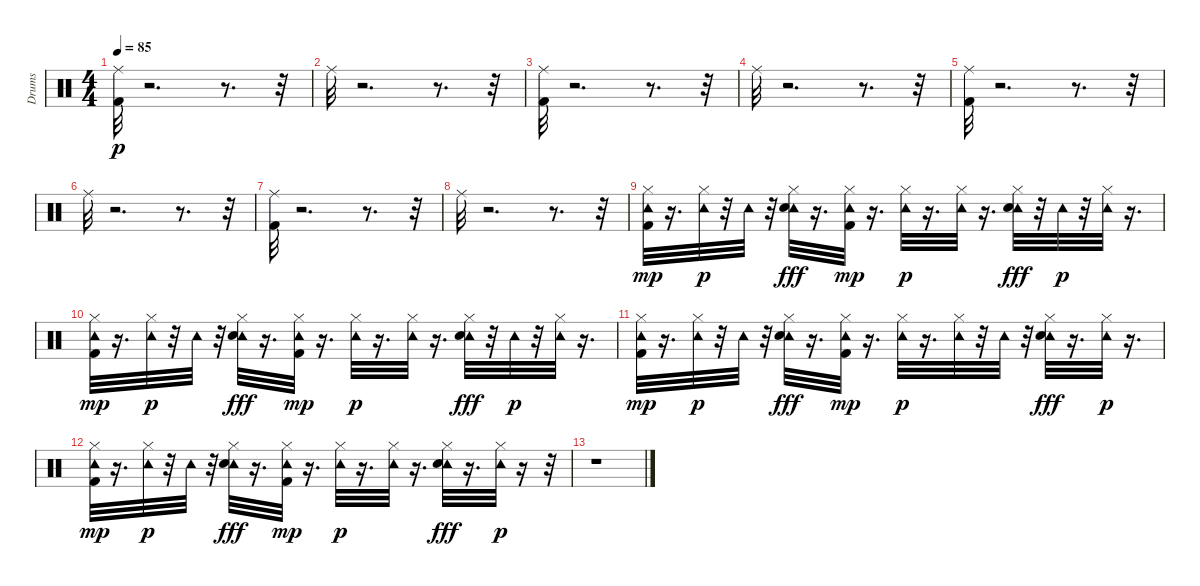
\track ("Drums" "Drums") {instrument percussion}
\staff {score}
\articulation defaults
\ts (4 4)
\tempo 85
\clef neutral
\ks c
("Ride (middle)" "Kick (hit) 2").32{dy p} r.2{d} r.8{d} r.32 |
"Ride (middle)".32 r.2{d} r.8{d} r.32 |
("Ride (middle)" "Kick (hit) 2").32 r.2{d} r.8{d} r.32 |
"Ride (middle)".32 r.2{d} r.8{d} r.32 |
("Ride (middle)" "Kick (hit) 2").32 r.2{d} r.8{d} r.32 |
"Ride (middle)".32 r.2{d} r.8{d} r.32 |
("Ride (middle)" "Kick (hit) 2").32 r.2{d} r.8{d} r.32 |
"Ride (middle)".32 r.2{d} r.8{d} r.32 |
("Tambourine (hit)" "Hi-Hat (closed)" "Kick (hit) 2").32{dy mp} r.16{d} ("Tambourine (hit)" "Hi-Hat (closed)").32{dy p} r.32 "Tambourine (hit)".32 r.32 ("Tambourine (hit)" "Hi-Hat (closed)" "Electric Snare (hit)").32{dy fff} r.16{d} ("Tambourine (hit)" "Hi-Hat (closed)" "Kick (hit) 2").32{dy mp} r.16{d} ("Tambourine (hit)" "Hi-Hat (closed)").32{dy p} r.16{d} ("Tambourine (hit)" "Hi-Hat (closed)").32 r.16{d} ("Tambourine (hit)" "Hi-Hat (closed)" "Electric Snare (hit)").32{dy fff} r.32 "Tambourine (hit)".32{dy p} r.32 ("Tambourine (hit)" "Hi-Hat (closed)").32 r.16{d} |
("Tambourine (hit)" "Hi-Hat (closed)" "Kick (hit) 2").32{dy mp} r.16{d} ("Tambourine (hit)" "Hi-Hat (closed)").32{dy p} r.32 "Tambourine (hit)".32 r.32 ("Tambourine (hit)" "Hi-Hat (closed)" "Electric Snare (hit)").32{dy fff} r.16{d} ("Tambourine (hit)" "Hi-Hat (closed)" "Kick (hit) 2").32{dy mp} r.16{d} ("Tambourine (hit)" "Hi-Hat (closed)").32{dy p} r.16{d} ("Tambourine (hit)" "Hi-Hat (closed)").32 r.16{d} ("Tambourine (hit)" "Hi-Hat (closed)" "Electric Snare (hit)").32{dy fff} r.32 "Tambourine (hit)".32{dy p} r.32 ("Tambourine (hit)" "Hi-Hat (closed)").32 r.16{d} |
("Tambourine (hit)" "Hi-Hat (closed)" "Kick (hit) 2").32{dy mp} r.16{d} ("Tambourine (hit)" "Hi-Hat (closed)").32{dy p} r.32 "Tambourine (hit)".32 r.32 ("Tambourine (hit)" "Hi-Hat (closed)" "Electric Snare (hit)").32{dy fff} r.16{d} ("Tambourine (hit)" "Hi-Hat (closed)" "Kick (hit) 2").32{dy mp} r.16{d} ("Tambourine (hit)" "Hi-Hat (closed)").32{dy p} r.16{d} ("Tambourine (hit)" "Hi-Hat (closed)").32 r.32 "Tambourine (hit)".32 r.32 ("Tambourine (hit)" "Hi-Hat (closed)" "Electric Snare (hit)").32{dy fff} r.16{d} ("Tambourine (hit)" "Hi-Hat (closed)").32{dy p} r.16{d} |
("Tambourine (hit)" "Hi-Hat (closed)" "Kick (hit) 2").32{dy mp} r.16{d} ("Tambourine (hit)" "Hi-Hat (closed)").32{dy p} r.32 "Tambourine (hit)".32 r.32 ("Tambourine (hit)" "Hi-Hat (closed)" "Electric Snare (hit)").32{dy fff} r.16{d} ("Tambourine (hit)" "Hi-Hat (closed)" "Kick (hit) 2").32{dy mp} r.16{d} ("Tambourine (hit)" "Hi-Hat (closed)").32{dy p} r.16{d} ("Tambourine (hit)" "Hi-Hat (closed)").32 r.16{d} ("Tambourine (hit)" "Hi-Hat (closed)" "Electric Snare (hit)").32{dy fff} r.16{d} ("Tambourine (hit)" "Hi-Hat (closed)").32{dy p} r.16 r.32 |
r.1
